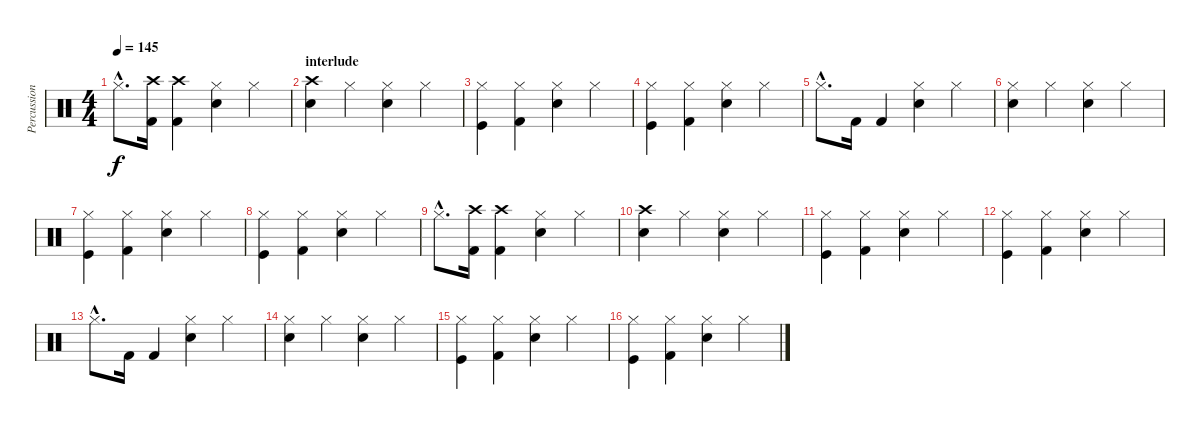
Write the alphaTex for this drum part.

\track ("Percussion" "Percussion") {instrument percussion}
\staff {score}
\articulation defaults
\ts (4 4)
\tempo 145
\clef neutral
\ks c "Hi-Hat (closed)"{hac}.8{d dy f}
("Crash high (hit)" "Kick (hit) 2").16 ("Crash high (hit)" "Kick (hit) 2").4 ("Hi-Hat (closed)" "Snare (hit) 2").4 "Hi-Hat (closed)".4 |
\section ("" "interlude")
("Crash high (hit)" "Snare (hit) 2").4 "Hi-Hat (closed)".4 ("Hi-Hat (closed)" "Snare (hit) 2").4 "Hi-Hat (closed)".4 |
("Hi-Hat (closed)" "Kick (hit)").4 ("Hi-Hat (closed)" "Kick (hit) 2").4 ("Hi-Hat (closed)" "Snare (hit) 2").4 "Hi-Hat (closed)".4 |
("Hi-Hat (closed)" "Kick (hit)").4 ("Hi-Hat (closed)" "Kick (hit) 2").4 ("Hi-Hat (closed)" "Snare (hit) 2").4 "Hi-Hat (closed)".4 |
"Hi-Hat (closed)"{hac}.8{d} "Kick (hit) 2".16 "Kick (hit) 2".4 ("Hi-Hat (closed)" "Snare (hit) 2").4 "Hi-Hat (closed)".4 |
("Hi-Hat (closed)" "Snare (hit) 2").4 "Hi-Hat (closed)".4 ("Hi-Hat (closed)" "Snare (hit) 2").4 "Hi-Hat (closed)".4 |
("Hi-Hat (closed)" "Kick (hit)").4 ("Hi-Hat (closed)" "Kick (hit) 2").4 ("Hi-Hat (closed)" "Snare (hit) 2").4 "Hi-Hat (closed)".4 |
("Hi-Hat (closed)" "Kick (hit)").4 ("Hi-Hat (closed)" "Kick (hit) 2").4 ("Hi-Hat (closed)" "Snare (hit) 2").4 "Hi-Hat (closed)".4 |
"Hi-Hat (closed)"{hac}.8{d} ("Crash high (hit)" "Kick (hit) 2").16 ("Crash high (hit)" "Kick (hit) 2").4 ("Hi-Hat (closed)" "Snare (hit) 2").4 "Hi-Hat (closed)".4 |
("Crash high (hit)" "Snare (hit) 2").4 "Hi-Hat (closed)".4 ("Hi-Hat (closed)" "Snare (hit) 2").4 "Hi-Hat (closed)".4 |
("Hi-Hat (closed)" "Kick (hit)").4 ("Hi-Hat (closed)" "Kick (hit) 2").4 ("Hi-Hat (closed)" "Snare (hit) 2").4 "Hi-Hat (closed)".4 |
("Hi-Hat (closed)" "Kick (hit)").4 ("Hi-Hat (closed)" "Kick (hit) 2").4 ("Hi-Hat (closed)" "Snare (hit) 2").4 "Hi-Hat (closed)".4 |
"Hi-Hat (closed)"{hac}.8{d} "Kick (hit) 2".16 "Kick (hit) 2".4 ("Hi-Hat (closed)" "Snare (hit) 2").4 "Hi-Hat (closed)".4 |
("Hi-Hat (closed)" "Snare (hit) 2").4 "Hi-Hat (closed)".4 ("Hi-Hat (closed)" "Snare (hit) 2").4 "Hi-Hat (closed)".4 |
("Hi-Hat (closed)" "Kick (hit)").4 ("Hi-Hat (closed)" "Kick (hit) 2").4 ("Hi-Hat (closed)" "Snare (hit) 2").4 "Hi-Hat (closed)".4 |
("Hi-Hat (closed)" "Kick (hit)").4 ("Hi-Hat (closed)" "Kick (hit) 2").4 ("Hi-Hat (closed)" "Snare (hit) 2").4 "Hi-Hat (closed)".4
